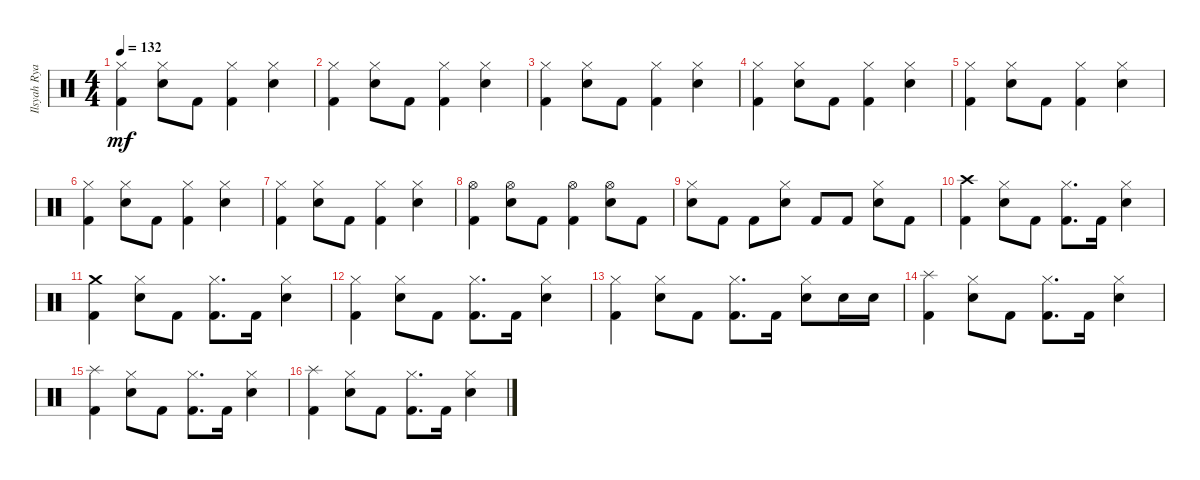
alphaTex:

\track ("Ilsyah Ryan Reza (drum)" "Ilsyah Rya") {instrument percussion}
\staff {score}
\articulation defaults
\ts (4 4)
\tempo 132
\clef neutral
\ks c
("Hi-Hat (closed)" "Kick (hit) 2").4{dy mf} ("Hi-Hat (closed)" "Electric Snare (hit)").8 "Kick (hit) 2".8 ("Hi-Hat (closed)" "Kick (hit) 2").4 ("Hi-Hat (closed)" "Electric Snare (hit)").4 |
("Hi-Hat (closed)" "Kick (hit) 2").4 ("Hi-Hat (closed)" "Electric Snare (hit)").8 "Kick (hit) 2".8 ("Hi-Hat (closed)" "Kick (hit) 2").4 ("Hi-Hat (closed)" "Electric Snare (hit)").4 |
("Hi-Hat (closed)" "Kick (hit) 2").4 ("Hi-Hat (closed)" "Electric Snare (hit)").8 "Kick (hit) 2".8 ("Hi-Hat (closed)" "Kick (hit) 2").4 ("Hi-Hat (closed)" "Electric Snare (hit)").4 |
("Hi-Hat (closed)" "Kick (hit) 2").4 ("Hi-Hat (closed)" "Electric Snare (hit)").8 "Kick (hit) 2".8 ("Hi-Hat (closed)" "Kick (hit) 2").4 ("Hi-Hat (closed)" "Electric Snare (hit)").4 |
("Hi-Hat (closed)" "Kick (hit) 2").4 ("Hi-Hat (closed)" "Electric Snare (hit)").8 "Kick (hit) 2".8 ("Hi-Hat (closed)" "Kick (hit) 2").4 ("Hi-Hat (closed)" "Electric Snare (hit)").4 |
("Hi-Hat (closed)" "Kick (hit) 2").4 ("Hi-Hat (closed)" "Electric Snare (hit)").8 "Kick (hit) 2".8 ("Hi-Hat (closed)" "Kick (hit) 2").4 ("Hi-Hat (closed)" "Electric Snare (hit)").4 |
("Hi-Hat (closed)" "Kick (hit) 2").4 ("Hi-Hat (closed)" "Electric Snare (hit)").8 "Kick (hit) 2".8 ("Hi-Hat (closed)" "Kick (hit) 2").4 ("Hi-Hat (closed)" "Electric Snare (hit)").4 |
("Hi-Hat (open)" "Kick (hit) 2").4 ("Hi-Hat (open)" "Electric Snare (hit)").8 "Kick (hit) 2".8 ("Hi-Hat (open)" "Kick (hit) 2").4 ("Hi-Hat (open)" "Electric Snare (hit)").8 "Kick (hit) 2".8 |
("Hi-Hat (closed)" "Electric Snare (hit)").8 "Kick (hit) 2".8 "Kick (hit) 2".8 ("Hi-Hat (closed)" "Electric Snare (hit)").8 "Kick (hit) 2".8 "Kick (hit) 2".8 ("Hi-Hat (closed)" "Electric Snare (hit)").8 "Kick (hit) 2".8 |
("Crash high (hit)" "Kick (hit) 2").4 ("Hi-Hat (closed)" "Electric Snare (hit)").8 "Kick (hit) 2".8 ("Hi-Hat (closed)" "Kick (hit) 2").8{d} "Kick (hit) 2".16 ("Hi-Hat (closed)" "Electric Snare (hit)").4 |
("Crash medium (hit)" "Kick (hit) 2").4 ("Hi-Hat (closed)" "Electric Snare (hit)").8 "Kick (hit) 2".8 ("Hi-Hat (closed)" "Kick (hit) 2").8{d} "Kick (hit) 2".16 ("Hi-Hat (closed)" "Electric Snare (hit)").4 |
("Hi-Hat (closed)" "Kick (hit) 2").4 ("Hi-Hat (closed)" "Electric Snare (hit)").8 "Kick (hit) 2".8 ("Hi-Hat (closed)" "Kick (hit) 2").8{d} "Kick (hit) 2".16 ("Hi-Hat (closed)" "Electric Snare (hit)").4 |
("Hi-Hat (closed)" "Kick (hit) 2").4 ("Hi-Hat (closed)" "Electric Snare (hit)").8 "Kick (hit) 2".8 ("Hi-Hat (closed)" "Kick (hit) 2").8{d} "Kick (hit) 2".16 ("Hi-Hat (closed)" "Electric Snare (hit)").8 "Electric Snare (hit)".16 "Electric Snare (hit)".16 |
("Splash (hit)" "Kick (hit) 2").4 ("Hi-Hat (closed)" "Electric Snare (hit)").8 "Kick (hit) 2".8 ("Hi-Hat (closed)" "Kick (hit) 2").8{d} "Kick (hit) 2".16 ("Hi-Hat (closed)" "Electric Snare (hit)").4 |
("Splash (hit)" "Kick (hit) 2").4 ("Hi-Hat (closed)" "Electric Snare (hit)").8 "Kick (hit) 2".8 ("Hi-Hat (closed)" "Kick (hit) 2").8{d} "Kick (hit) 2".16 ("Hi-Hat (closed)" "Electric Snare (hit)").4 |
("Splash (hit)" "Kick (hit) 2").4 ("Hi-Hat (closed)" "Electric Snare (hit)").8 "Kick (hit) 2".8 ("Hi-Hat (closed)" "Kick (hit) 2").8{d} "Kick (hit) 2".16 ("Hi-Hat (closed)" "Electric Snare (hit)").4
